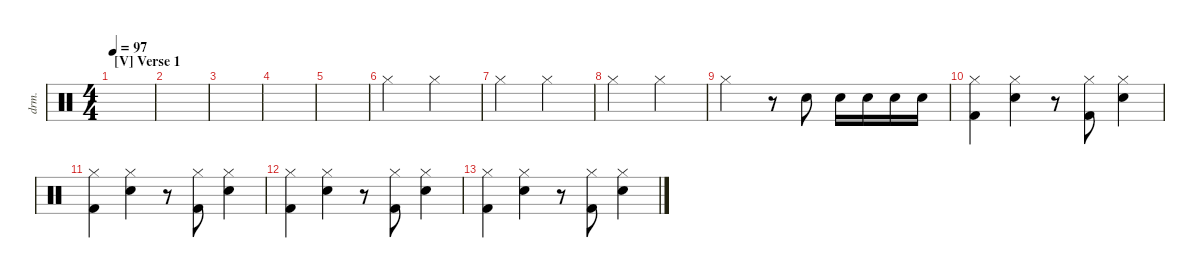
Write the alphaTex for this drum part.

\defaultSystemsLayout 4
\hideDynamics
\bracketExtendMode nobrackets
\otherSystemsTrackNameOrientation horizontal
\track ("Drumkit" "drm.") {instrument percussion}
\staff {score}
\articulation defaults
\ts (4 4)
\section ("V" "Verse 1")
\tempo 97
\clef neutral
\ks c
|
|
|
|
|
"Hi-Hat (closed)".2{beam Down} "Hi-Hat (closed)".2{beam Down} |
"Hi-Hat (closed)".2{beam Down} "Hi-Hat (closed)".2{beam Down} |
"Hi-Hat (closed)".2{beam Down} "Hi-Hat (closed)".2{beam Down} |
"Hi-Hat (closed)".2{beam Down} r.8{beam Down} "Snare (hit) 2".8{beam Down} "Snare (hit) 2".16{beam Down} "Snare (hit) 2".16{beam Down} "Snare (hit) 2".16{beam Down} "Snare (hit) 2".16{beam Down} |
("Kick (hit) 2" "Hi-Hat (closed)").4{beam Down} ("Hi-Hat (closed)" "Snare (hit) 2").4{beam Down} r.8{beam Down} ("Kick (hit) 2" "Hi-Hat (closed)").8{beam Down} ("Hi-Hat (closed)" "Snare (hit) 2").4{beam Down} |
("Kick (hit) 2" "Hi-Hat (closed)").4{beam Down} ("Hi-Hat (closed)" "Snare (hit) 2").4{beam Down} r.8{beam Down} ("Kick (hit) 2" "Hi-Hat (closed)").8{beam Down} ("Hi-Hat (closed)" "Snare (hit) 2").4{beam Down} |
("Kick (hit) 2" "Hi-Hat (closed)").4{beam Down} ("Hi-Hat (closed)" "Snare (hit) 2").4{beam Down} r.8{beam Down} ("Kick (hit) 2" "Hi-Hat (closed)").8{beam Down} ("Hi-Hat (closed)" "Snare (hit) 2").4{beam Down} |
("Kick (hit) 2" "Hi-Hat (closed)").4{beam Down} ("Hi-Hat (closed)" "Snare (hit) 2").4{beam Down} r.8{beam Down} ("Kick (hit) 2" "Hi-Hat (closed)").8{beam Down} ("Hi-Hat (closed)" "Snare (hit) 2").4{beam Down}
